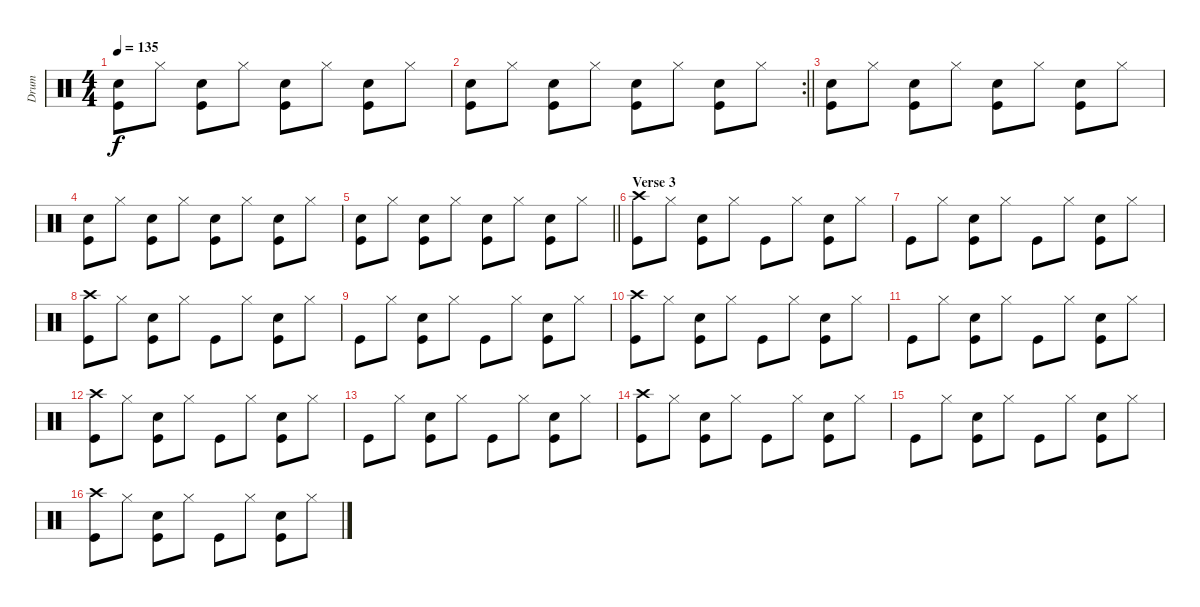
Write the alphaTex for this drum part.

\track ("Drum" "Drum") {instrument percussion}
\staff {score}
\articulation defaults
\ts (4 4)
\tempo 135
\clef neutral
\ks c
("Snare (hit) 2" "Kick (hit)").8{dy f} "Hi-Hat (closed)".8 ("Snare (hit) 2" "Kick (hit)").8 "Hi-Hat (closed)".8 ("Snare (hit) 2" "Kick (hit)").8 "Hi-Hat (closed)".8 ("Snare (hit) 2" "Kick (hit)").8 "Hi-Hat (closed)".8 |
\rc 2
\barLineRight lightlight
("Snare (hit) 2" "Kick (hit)").8 "Hi-Hat (closed)".8 ("Snare (hit) 2" "Kick (hit)").8 "Hi-Hat (closed)".8 ("Snare (hit) 2" "Kick (hit)").8 "Hi-Hat (closed)".8 ("Snare (hit) 2" "Kick (hit)").8 "Hi-Hat (closed)".8 |
("Snare (hit) 2" "Kick (hit)").8 "Hi-Hat (closed)".8 ("Snare (hit) 2" "Kick (hit)").8 "Hi-Hat (closed)".8 ("Snare (hit) 2" "Kick (hit)").8 "Hi-Hat (closed)".8 ("Snare (hit) 2" "Kick (hit)").8 "Hi-Hat (closed)".8 |
("Snare (hit) 2" "Kick (hit)").8 "Hi-Hat (closed)".8 ("Snare (hit) 2" "Kick (hit)").8 "Hi-Hat (closed)".8 ("Snare (hit) 2" "Kick (hit)").8 "Hi-Hat (closed)".8 ("Snare (hit) 2" "Kick (hit)").8 "Hi-Hat (closed)".8 |
\barLineRight lightlight
("Snare (hit) 2" "Kick (hit)").8 "Hi-Hat (closed)".8 ("Snare (hit) 2" "Kick (hit)").8 "Hi-Hat (closed)".8 ("Snare (hit) 2" "Kick (hit)").8 "Hi-Hat (closed)".8 ("Snare (hit) 2" "Kick (hit)").8 "Hi-Hat (closed)".8 |
\section ("" "Verse 3")
("Crash high (hit)" "Kick (hit)").8 "Hi-Hat (closed)".8 ("Snare (hit) 2" "Kick (hit)").8 "Hi-Hat (closed)".8 "Kick (hit)".8 "Hi-Hat (closed)".8 ("Snare (hit) 2" "Kick (hit)").8 "Hi-Hat (closed)".8 |
"Kick (hit)".8 "Hi-Hat (closed)".8 ("Snare (hit) 2" "Kick (hit)").8 "Hi-Hat (closed)".8 "Kick (hit)".8 "Hi-Hat (closed)".8 ("Snare (hit) 2" "Kick (hit)").8 "Hi-Hat (closed)".8 |
("Crash high (hit)" "Kick (hit)").8 "Hi-Hat (closed)".8 ("Snare (hit) 2" "Kick (hit)").8 "Hi-Hat (closed)".8 "Kick (hit)".8 "Hi-Hat (closed)".8 ("Snare (hit) 2" "Kick (hit)").8 "Hi-Hat (closed)".8 |
"Kick (hit)".8 "Hi-Hat (closed)".8 ("Snare (hit) 2" "Kick (hit)").8 "Hi-Hat (closed)".8 "Kick (hit)".8 "Hi-Hat (closed)".8 ("Snare (hit) 2" "Kick (hit)").8 "Hi-Hat (closed)".8 |
("Crash high (hit)" "Kick (hit)").8 "Hi-Hat (closed)".8 ("Snare (hit) 2" "Kick (hit)").8 "Hi-Hat (closed)".8 "Kick (hit)".8 "Hi-Hat (closed)".8 ("Snare (hit) 2" "Kick (hit)").8 "Hi-Hat (closed)".8 |
"Kick (hit)".8 "Hi-Hat (closed)".8 ("Snare (hit) 2" "Kick (hit)").8 "Hi-Hat (closed)".8 "Kick (hit)".8 "Hi-Hat (closed)".8 ("Snare (hit) 2" "Kick (hit)").8 "Hi-Hat (closed)".8 |
("Crash high (hit)" "Kick (hit)").8 "Hi-Hat (closed)".8 ("Snare (hit) 2" "Kick (hit)").8 "Hi-Hat (closed)".8 "Kick (hit)".8 "Hi-Hat (closed)".8 ("Snare (hit) 2" "Kick (hit)").8 "Hi-Hat (closed)".8 |
"Kick (hit)".8 "Hi-Hat (closed)".8 ("Snare (hit) 2" "Kick (hit)").8 "Hi-Hat (closed)".8 "Kick (hit)".8 "Hi-Hat (closed)".8 ("Snare (hit) 2" "Kick (hit)").8 "Hi-Hat (closed)".8 |
("Crash high (hit)" "Kick (hit)").8 "Hi-Hat (closed)".8 ("Snare (hit) 2" "Kick (hit)").8 "Hi-Hat (closed)".8 "Kick (hit)".8 "Hi-Hat (closed)".8 ("Snare (hit) 2" "Kick (hit)").8 "Hi-Hat (closed)".8 |
"Kick (hit)".8 "Hi-Hat (closed)".8 ("Snare (hit) 2" "Kick (hit)").8 "Hi-Hat (closed)".8 "Kick (hit)".8 "Hi-Hat (closed)".8 ("Snare (hit) 2" "Kick (hit)").8 "Hi-Hat (closed)".8 |
("Crash high (hit)" "Kick (hit)").8 "Hi-Hat (closed)".8 ("Snare (hit) 2" "Kick (hit)").8 "Hi-Hat (closed)".8 "Kick (hit)".8 "Hi-Hat (closed)".8 ("Snare (hit) 2" "Kick (hit)").8 "Hi-Hat (closed)".8
